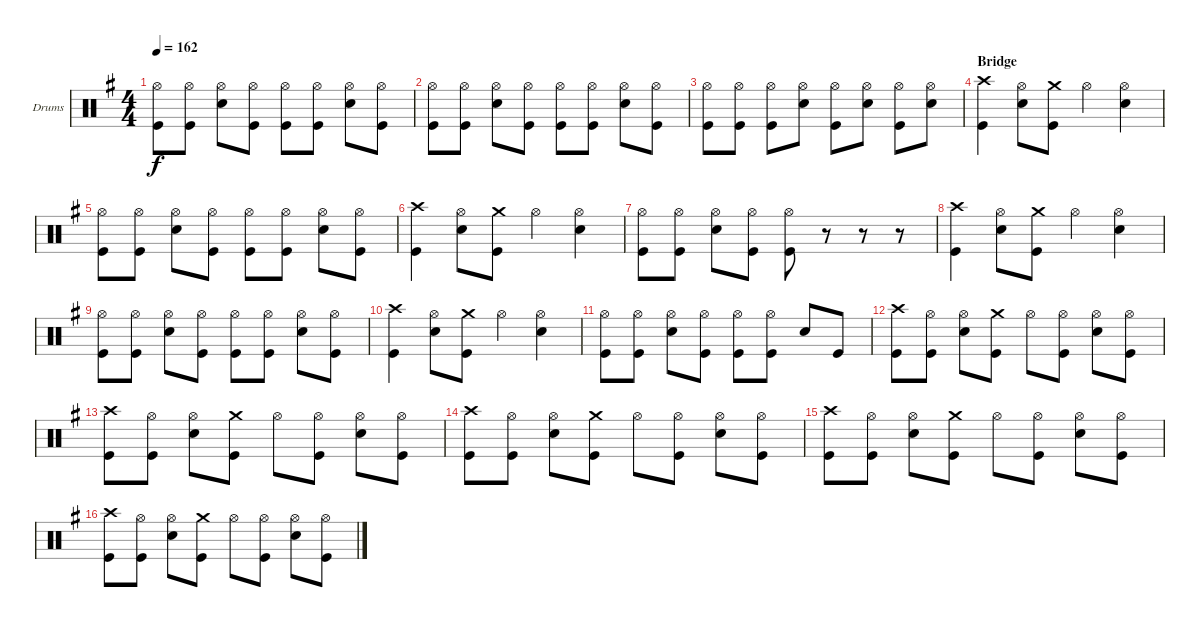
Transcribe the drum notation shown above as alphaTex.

\defaultSystemsLayout 4
\bracketExtendMode groupsimilarinstruments
\firstSystemTrackNameOrientation horizontal
\otherSystemsTrackNameOrientation horizontal
\track ("Drumkit" "Drums") {instrument percussion}
\staff {score}
\articulation defaults
\ts (4 4)
\tempo 162
\clef neutral
\ks g
("Hi-Hat (open)" "Kick (hit)").8{dy f} ("Hi-Hat (open)" "Kick (hit)").8 ("Hi-Hat (open)" "Snare (hit) 2").8 ("Hi-Hat (open)" "Kick (hit)").8 ("Hi-Hat (open)" "Kick (hit)").8 ("Hi-Hat (open)" "Kick (hit)").8 ("Hi-Hat (open)" "Snare (hit) 2").8 ("Hi-Hat (open)" "Kick (hit)").8 |
("Hi-Hat (open)" "Kick (hit)").8 ("Hi-Hat (open)" "Kick (hit)").8 ("Hi-Hat (open)" "Snare (hit) 2").8 ("Hi-Hat (open)" "Kick (hit)").8 ("Hi-Hat (open)" "Kick (hit)").8 ("Hi-Hat (open)" "Kick (hit)").8 ("Hi-Hat (open)" "Snare (hit) 2").8 ("Hi-Hat (open)" "Kick (hit)").8 |
("Hi-Hat (open)" "Kick (hit)").8 ("Hi-Hat (open)" "Kick (hit)").8 ("Hi-Hat (open)" "Kick (hit)").8 ("Hi-Hat (open)" "Snare (hit) 2").8 ("Hi-Hat (open)" "Kick (hit)").8 ("Hi-Hat (open)" "Snare (hit) 2").8 ("Hi-Hat (open)" "Kick (hit)").8 ("Hi-Hat (open)" "Snare (hit) 2").8 |
\section ("" "Bridge")
("Crash high (hit)" "Kick (hit)").4 ("Hi-Hat (open)" "Snare (hit) 2").8 ("Crash medium (hit)" "Kick (hit)").8 "Hi-Hat (open)".4 ("Hi-Hat (open)" "Snare (hit) 2").4 |
("Hi-Hat (open)" "Kick (hit)").8 ("Hi-Hat (open)" "Kick (hit)").8 ("Hi-Hat (open)" "Snare (hit) 2").8 ("Hi-Hat (open)" "Kick (hit)").8 ("Hi-Hat (open)" "Kick (hit)").8 ("Hi-Hat (open)" "Kick (hit)").8 ("Hi-Hat (open)" "Snare (hit) 2").8 ("Hi-Hat (open)" "Kick (hit)").8 |
("Crash high (hit)" "Kick (hit)").4 ("Hi-Hat (open)" "Snare (hit) 2").8 ("Crash medium (hit)" "Kick (hit)").8 "Hi-Hat (open)".4 ("Hi-Hat (open)" "Snare (hit) 2").4 |
("Hi-Hat (open)" "Kick (hit)").8 ("Hi-Hat (open)" "Kick (hit)").8 ("Hi-Hat (open)" "Snare (hit) 2").8 ("Hi-Hat (open)" "Kick (hit)").8 ("Hi-Hat (open)" "Kick (hit)").8 r.8 r.8 r.8 |
("Crash high (hit)" "Kick (hit)").4 ("Hi-Hat (open)" "Snare (hit) 2").8 ("Crash medium (hit)" "Kick (hit)").8 "Hi-Hat (open)".4 ("Hi-Hat (open)" "Snare (hit) 2").4 |
("Hi-Hat (open)" "Kick (hit)").8 ("Hi-Hat (open)" "Kick (hit)").8 ("Hi-Hat (open)" "Snare (hit) 2").8 ("Hi-Hat (open)" "Kick (hit)").8 ("Hi-Hat (open)" "Kick (hit)").8 ("Hi-Hat (open)" "Kick (hit)").8 ("Hi-Hat (open)" "Snare (hit) 2").8 ("Hi-Hat (open)" "Kick (hit)").8 |
("Crash high (hit)" "Kick (hit)").4 ("Hi-Hat (open)" "Snare (hit) 2").8 ("Crash medium (hit)" "Kick (hit)").8 "Hi-Hat (open)".4 ("Hi-Hat (open)" "Snare (hit) 2").4 |
("Hi-Hat (open)" "Kick (hit)").8 ("Hi-Hat (open)" "Kick (hit)").8 ("Hi-Hat (open)" "Snare (hit) 2").8 ("Hi-Hat (open)" "Kick (hit)").8 ("Hi-Hat (open)" "Kick (hit)").8 ("Hi-Hat (open)" "Kick (hit)").8 "Snare (hit) 2".8 "Kick (hit)".8 |
("Crash high (hit)" "Kick (hit)").8 ("Hi-Hat (open)" "Kick (hit)").8 ("Hi-Hat (open)" "Snare (hit) 2").8 ("Crash medium (hit)" "Kick (hit)").8 "Hi-Hat (open)".8 ("Hi-Hat (open)" "Kick (hit)").8 ("Hi-Hat (open)" "Snare (hit) 2").8 ("Hi-Hat (open)" "Kick (hit)").8 |
("Crash high (hit)" "Kick (hit)").8 ("Hi-Hat (open)" "Kick (hit)").8 ("Hi-Hat (open)" "Snare (hit) 2").8 ("Crash medium (hit)" "Kick (hit)").8 "Hi-Hat (open)".8 ("Hi-Hat (open)" "Kick (hit)").8 ("Hi-Hat (open)" "Snare (hit) 2").8 ("Hi-Hat (open)" "Kick (hit)").8 |
("Crash high (hit)" "Kick (hit)").8 ("Hi-Hat (open)" "Kick (hit)").8 ("Hi-Hat (open)" "Snare (hit) 2").8 ("Crash medium (hit)" "Kick (hit)").8 "Hi-Hat (open)".8 ("Hi-Hat (open)" "Kick (hit)").8 ("Hi-Hat (open)" "Snare (hit) 2").8 ("Hi-Hat (open)" "Kick (hit)").8 |
("Crash high (hit)" "Kick (hit)").8 ("Hi-Hat (open)" "Kick (hit)").8 ("Hi-Hat (open)" "Snare (hit) 2").8 ("Crash medium (hit)" "Kick (hit)").8 "Hi-Hat (open)".8 ("Hi-Hat (open)" "Kick (hit)").8 ("Hi-Hat (open)" "Snare (hit) 2").8 ("Hi-Hat (open)" "Kick (hit)").8 |
("Crash high (hit)" "Kick (hit)").8 ("Hi-Hat (open)" "Kick (hit)").8 ("Hi-Hat (open)" "Snare (hit) 2").8 ("Crash medium (hit)" "Kick (hit)").8 "Hi-Hat (open)".8 ("Hi-Hat (open)" "Kick (hit)").8 ("Hi-Hat (open)" "Snare (hit) 2").8 ("Hi-Hat (open)" "Kick (hit)").8
